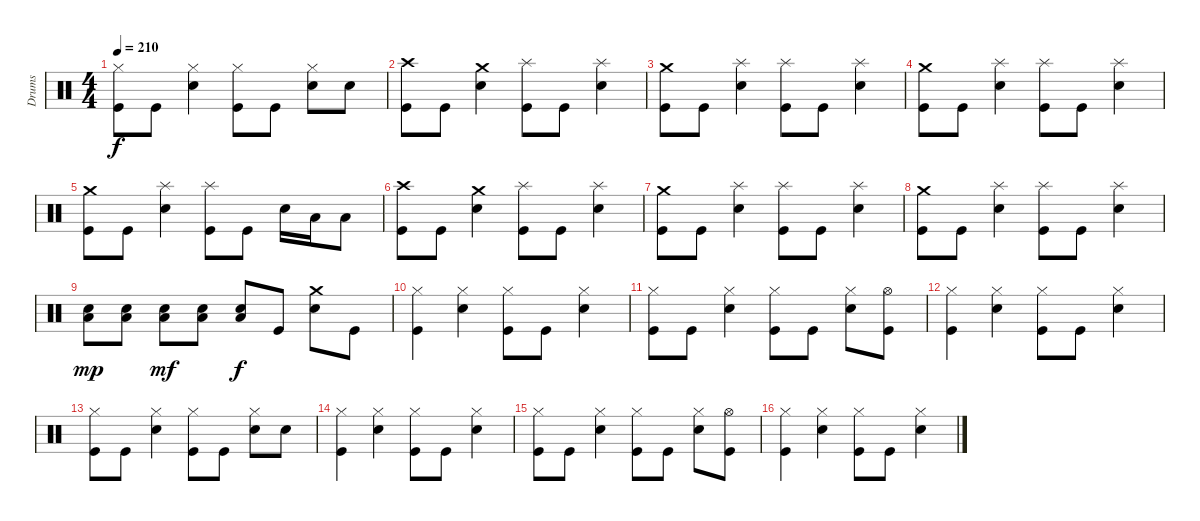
\track ("Drums" "Drums") {instrument percussion}
\staff {score}
\articulation defaults
\ts (4 4)
\tempo 210
\clef neutral
\ks c
("Hi-Hat (closed)" "Kick (hit)").8{dy f} "Kick (hit)".8 ("Hi-Hat (closed)" "Electric Snare (hit)").4 ("Hi-Hat (closed)" "Kick (hit)").8 "Kick (hit)".8 ("Hi-Hat (closed)" "Electric Snare (hit)").8 "Electric Snare (hit)".8 |
("Crash high (hit)" "Kick (hit)").8 "Kick (hit)".8 ("Crash medium (hit)" "Electric Snare (hit)").4 ("Splash (hit)" "Kick (hit)").8 "Kick (hit)".8 ("Splash (hit)" "Electric Snare (hit)").4 |
("Crash medium (hit)" "Kick (hit)").8 "Kick (hit)".8 ("Splash (hit)" "Electric Snare (hit)").4 ("Splash (hit)" "Kick (hit)").8 "Kick (hit)".8 ("Splash (hit)" "Electric Snare (hit)").4 |
("Crash medium (hit)" "Kick (hit)").8 "Kick (hit)".8 ("Splash (hit)" "Electric Snare (hit)").4 ("Splash (hit)" "Kick (hit)").8 "Kick (hit)".8 ("Splash (hit)" "Electric Snare (hit)").4 |
("Crash medium (hit)" "Kick (hit)").8 "Kick (hit)".8 ("Splash (hit)" "Electric Snare (hit)").4 ("Splash (hit)" "Kick (hit)").8 "Kick (hit)".8 "Electric Snare (hit)".16 "Low Tom (hit)".16 "Low Tom (hit)".8 |
("Crash high (hit)" "Kick (hit)").8 "Kick (hit)".8 ("Crash medium (hit)" "Electric Snare (hit)").4 ("Splash (hit)" "Kick (hit)").8 "Kick (hit)".8 ("Splash (hit)" "Electric Snare (hit)").4 |
("Crash medium (hit)" "Kick (hit)").8 "Kick (hit)".8 ("Splash (hit)" "Electric Snare (hit)").4 ("Splash (hit)" "Kick (hit)").8 "Kick (hit)".8 ("Splash (hit)" "Electric Snare (hit)").4 |
("Crash medium (hit)" "Kick (hit)").8 "Kick (hit)".8 ("Splash (hit)" "Electric Snare (hit)").4 ("Splash (hit)" "Kick (hit)").8 "Kick (hit)".8 ("Splash (hit)" "Electric Snare (hit)").4 |
("Low Floor Tom (hit)" "Electric Snare (hit)").8{dy mp} ("Low Floor Tom (hit)" "Electric Snare (hit)").8 ("Low Floor Tom (hit)" "Electric Snare (hit)").8{dy mf} ("Low Floor Tom (hit)" "Electric Snare (hit)").8 ("Low Floor Tom (hit)" "Electric Snare (hit)").8{dy f} "Kick (hit)".8 ("Crash medium (hit)" "Electric Snare (hit)").8 "Kick (hit)".8 |
("Hi-Hat (closed)" "Kick (hit)").4 ("Hi-Hat (closed)" "Electric Snare (hit)").4 ("Hi-Hat (closed)" "Kick (hit)").8 "Kick (hit)".8 ("Hi-Hat (closed)" "Electric Snare (hit)").4 |
("Hi-Hat (closed)" "Kick (hit)").8 "Kick (hit)".8 ("Hi-Hat (closed)" "Electric Snare (hit)").4 ("Hi-Hat (closed)" "Kick (hit)").8 "Kick (hit)".8 ("Hi-Hat (closed)" "Electric Snare (hit)").8 ("Hi-Hat (open)" "Kick (hit)").8 |
("Hi-Hat (closed)" "Kick (hit)").4 ("Hi-Hat (closed)" "Electric Snare (hit)").4 ("Hi-Hat (closed)" "Kick (hit)").8 "Kick (hit)".8 ("Hi-Hat (closed)" "Electric Snare (hit)").4 |
("Hi-Hat (closed)" "Kick (hit)").8 "Kick (hit)".8 ("Hi-Hat (closed)" "Electric Snare (hit)").4 ("Hi-Hat (closed)" "Kick (hit)").8 "Kick (hit)".8 ("Hi-Hat (closed)" "Electric Snare (hit)").8 "Electric Snare (hit)".8 |
("Hi-Hat (closed)" "Kick (hit)").4 ("Hi-Hat (closed)" "Electric Snare (hit)").4 ("Hi-Hat (closed)" "Kick (hit)").8 "Kick (hit)".8 ("Hi-Hat (closed)" "Electric Snare (hit)").4 |
("Hi-Hat (closed)" "Kick (hit)").8 "Kick (hit)".8 ("Hi-Hat (closed)" "Electric Snare (hit)").4 ("Hi-Hat (closed)" "Kick (hit)").8 "Kick (hit)".8 ("Hi-Hat (closed)" "Electric Snare (hit)").8 ("Hi-Hat (open)" "Kick (hit)").8 |
("Hi-Hat (closed)" "Kick (hit)").4 ("Hi-Hat (closed)" "Electric Snare (hit)").4 ("Hi-Hat (closed)" "Kick (hit)").8 "Kick (hit)".8 ("Hi-Hat (closed)" "Electric Snare (hit)").4
